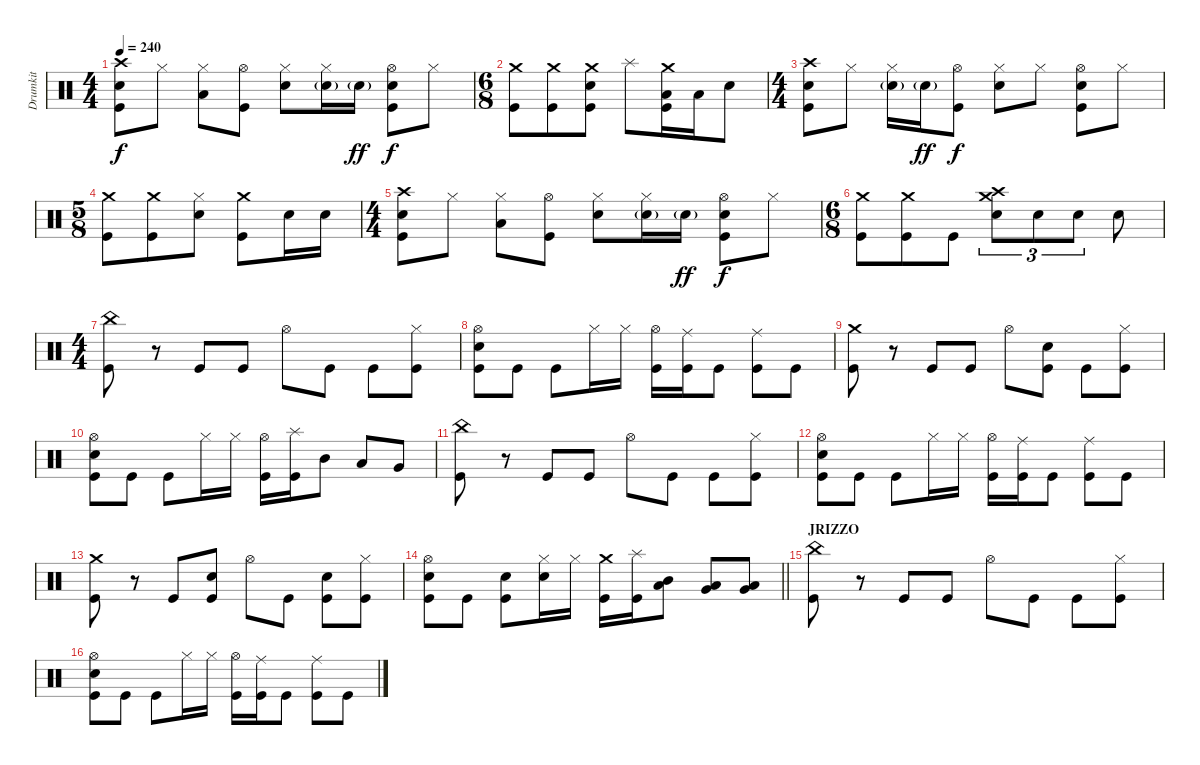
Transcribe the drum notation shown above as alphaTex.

\track ("Drumkit" "Drumkit") {instrument percussion}
\staff {score}
\articulation defaults
\ts (4 4)
\tempo 240
\clef neutral
\ks c
("Crash high (hit)" "Snare (hit) 2" "Kick (hit)").8{dy f} "Hi-Hat (closed)".8 ("Hi-Hat (closed)" "Low Floor Tom (hit)").8 ("Hi-Hat (open)" "Kick (hit)").8 ("Hi-Hat (closed)" "Snare (hit) 2").8 ("Hi-Hat (closed)" "Snare (hit) 2"{g}).16 "Snare (hit) 2"{g}.16{dy ff} ("Hi-Hat (open)" "Snare (hit) 2" "Kick (hit)").8{dy f} "Hi-Hat (closed)".8 |
\ts (6 8)
("Crash medium (hit)" "Kick (hit)").8 ("Crash medium (hit)" "Kick (hit)").8 ("Crash medium (hit)" "Snare (hit) 2" "Kick (hit)").8 "Splash (hit)".8 ("Crash medium (hit)" "Low Tom (hit)" "Kick (hit)").16 "Low Tom (hit)".16 "Snare (hit) 2".8 |
\ts (4 4)
("Crash high (hit)" "Snare (hit) 2" "Kick (hit)").8 "Hi-Hat (closed)".8 ("Hi-Hat (closed)" "Snare (hit) 2"{g}).16 "Snare (hit) 2"{g}.16{dy ff} ("Hi-Hat (open)" "Kick (hit)").8{dy f} ("Hi-Hat (closed)" "Snare (hit) 2").8 "Hi-Hat (closed)".8 ("Hi-Hat (open)" "Snare (hit) 2" "Kick (hit)").8 "Hi-Hat (closed)".8 |
\ts (5 8)
("Crash medium (hit)" "Kick (hit)").8 ("Crash medium (hit)" "Kick (hit)").8 ("Hi-Hat (closed)" "Snare (hit) 2").8 ("Crash medium (hit)" "Kick (hit)").8 "Snare (hit) 2".16 "Snare (hit) 2".16 |
\ts (4 4)
("Crash high (hit)" "Snare (hit) 2" "Kick (hit)").8 "Hi-Hat (closed)".8 ("Hi-Hat (closed)" "Low Floor Tom (hit)").8 ("Hi-Hat (open)" "Kick (hit)").8 ("Hi-Hat (closed)" "Snare (hit) 2").8 ("Hi-Hat (closed)" "Snare (hit) 2"{g}).16 "Snare (hit) 2"{g}.16{dy ff} ("Hi-Hat (open)" "Snare (hit) 2" "Kick (hit)").8{dy f} "Hi-Hat (closed)".8 |
\ts (6 8)
("Crash medium (hit)" "Kick (hit)").8 ("Crash medium (hit)" "Kick (hit)").8 "Kick (hit)".8 ("Crash high (hit)" "Crash medium (hit)" "Snare (hit) 2").8{tu (3 2)} "Snare (hit) 2".8{tu (3 2)} "Snare (hit) 2".8{tu (3 2)} "Snare (hit) 2".8 |
\ts (4 4)
("China (hit)" "Kick (hit)").8 r.8 "Kick (hit)".8 "Kick (hit)".8 "Hi-Hat (open)".8 "Kick (hit)".8 "Kick (hit)".8 ("Hi-Hat (closed)" "Kick (hit)").8 |
("Hi-Hat (open)" "Snare (hit) 2" "Kick (hit)").8 "Kick (hit)".8 "Kick (hit)".8 "Hi-Hat (closed)".16 "Hi-Hat (closed)".16 ("Hi-Hat (open)" "Kick (hit)").16 ("Ride (middle)" "Kick (hit)").16 "Kick (hit)".8 ("Ride (middle)" "Kick (hit)").8 "Kick (hit)".8 |
("Crash medium (hit)" "Kick (hit)").8 r.8 "Kick (hit)".8 "Kick (hit)".8 "Hi-Hat (open)".8 ("Snare (hit) 2" "Kick (hit)").8 "Kick (hit)".8 ("Hi-Hat (closed)" "Kick (hit)").8 |
("Hi-Hat (open)" "Snare (hit) 2" "Kick (hit)").8 "Kick (hit)".8 "Kick (hit)".8 "Hi-Hat (closed)".16 "Hi-Hat (closed)".16 ("Hi-Hat (open)" "Kick (hit)").16 ("Splash (hit)" "Kick (hit)").16 "Mid Tom (hit)".8 "Low Tom (hit)".8 "Very Low Tom (hit)".8 |
("China (hit)" "Kick (hit)").8 r.8 "Kick (hit)".8 "Kick (hit)".8 "Hi-Hat (open)".8 "Kick (hit)".8 "Kick (hit)".8 ("Hi-Hat (closed)" "Kick (hit)").8 |
("Hi-Hat (open)" "Snare (hit) 2" "Kick (hit)").8 "Kick (hit)".8 "Kick (hit)".8 "Hi-Hat (closed)".16 "Hi-Hat (closed)".16 ("Hi-Hat (open)" "Kick (hit)").16 ("Ride (middle)" "Kick (hit)").16 "Kick (hit)".8 ("Ride (middle)" "Kick (hit)").8 "Kick (hit)".8 |
("Crash medium (hit)" "Kick (hit)").8 r.8 "Kick (hit)".8 ("Snare (hit) 2" "Kick (hit)").8 "Hi-Hat (open)".8 "Kick (hit)".8 ("Snare (hit) 2" "Kick (hit)").8 ("Hi-Hat (closed)" "Kick (hit)").8 |
\barLineRight lightlight
("Hi-Hat (open)" "Snare (hit) 2" "Kick (hit)").8 "Kick (hit)".8 ("Snare (hit) 2" "Kick (hit)").8 ("Hi-Hat (closed)" "Snare (hit) 2").16 "Hi-Hat (closed)".16 ("Crash medium (hit)" "Kick (hit)").16 ("Splash (hit)" "Kick (hit)").16 ("Mid Tom (hit)" "Low Tom (hit)").8 ("Low Tom (hit)" "Very Low Tom (hit)").8 ("Very Low Tom (hit)" "Low Floor Tom (hit)").8 |
\section ("" "JRIZZO")
("China (hit)" "Kick (hit)").8 r.8 "Kick (hit)".8 "Kick (hit)".8 "Hi-Hat (open)".8 "Kick (hit)".8 "Kick (hit)".8 ("Hi-Hat (closed)" "Kick (hit)").8 |
("Hi-Hat (open)" "Snare (hit) 2" "Kick (hit)").8 "Kick (hit)".8 "Kick (hit)".8 "Hi-Hat (closed)".16 "Hi-Hat (closed)".16 ("Hi-Hat (open)" "Kick (hit)").16 ("Ride (middle)" "Kick (hit)").16 "Kick (hit)".8 ("Ride (middle)" "Kick (hit)").8 "Kick (hit)".8
